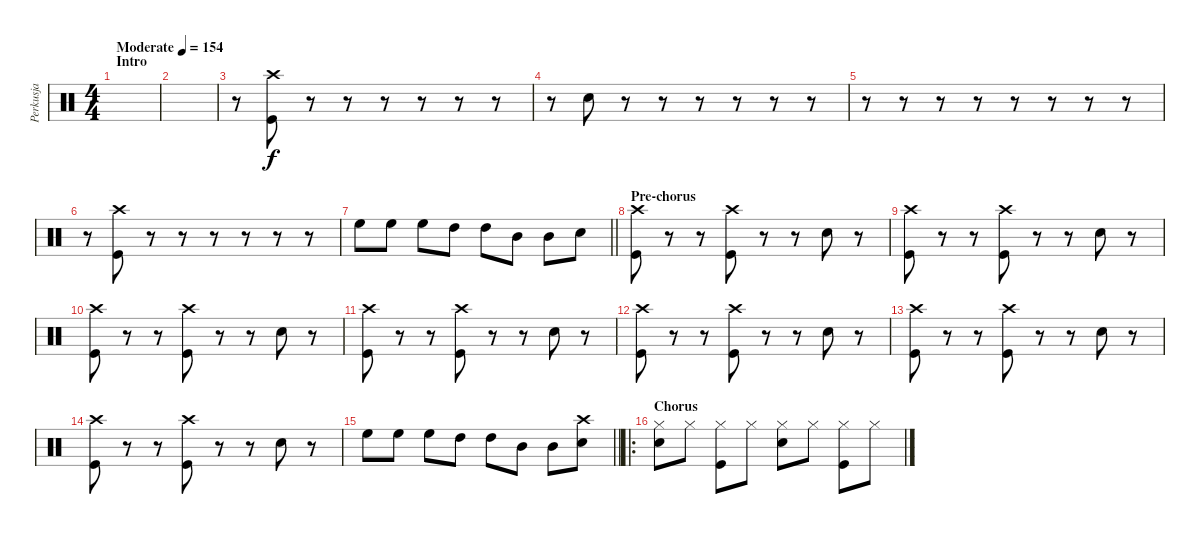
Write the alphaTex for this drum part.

\track ("Perkusja" "Perkusja") {instrument percussion}
\staff {score}
\articulation defaults
\ts (4 4)
\section ("" "Intro")
\tempo (154 "Moderate")
\clef neutral
\ks c
|
|
r.8 ("Kick (hit)" "Crash high (hit)").8 r.8 r.8 r.8 r.8 r.8 r.8 |
r.8 "Snare (hit) 2".8 r.8 r.8 r.8 r.8 r.8 r.8 |
r.8 r.8 r.8 r.8 r.8 r.8 r.8 r.8 |
r.8 ("Kick (hit)" "Crash high (hit)").8 r.8 r.8 r.8 r.8 r.8 r.8 |
\barLineRight lightlight "High Floor Tom (hit)".8 "High Floor Tom (hit)".8 "High Floor Tom (hit)".8 "High Tom (hit)".8 "High Tom (hit)".8 "Mid Tom (hit)".8 "Mid Tom (hit)".8 "Snare (hit) 2".8
|
\section ("" "Pre-chorus")
("Kick (hit)" "Crash high (hit)").8 r.8 r.8 ("Kick (hit)" "Crash high (hit)").8 r.8 r.8 "Snare (hit) 2".8 r.8 |
("Kick (hit)" "Crash high (hit)").8 r.8 r.8 ("Kick (hit)" "Crash high (hit)").8 r.8 r.8 "Snare (hit) 2".8 r.8 |
("Kick (hit)" "Crash high (hit)").8 r.8 r.8 ("Kick (hit)" "Crash high (hit)").8 r.8 r.8 "Snare (hit) 2".8 r.8 |
("Kick (hit)" "Crash high (hit)").8 r.8 r.8 ("Kick (hit)" "Crash high (hit)").8 r.8 r.8 "Snare (hit) 2".8 r.8 |
("Kick (hit)" "Crash high (hit)").8 r.8 r.8 ("Kick (hit)" "Crash high (hit)").8 r.8 r.8 "Snare (hit) 2".8 r.8 |
("Kick (hit)" "Crash high (hit)").8 r.8 r.8 ("Kick (hit)" "Crash high (hit)").8 r.8 r.8 "Snare (hit) 2".8 r.8 |
("Kick (hit)" "Crash high (hit)").8 r.8 r.8 ("Kick (hit)" "Crash high (hit)").8 r.8 r.8 "Snare (hit) 2".8 r.8 |
\barLineRight lightlight "High Floor Tom (hit)".8 "High Floor Tom (hit)".8 "High Floor Tom (hit)".8 "High Tom (hit)".8 "High Tom (hit)".8 "Mid Tom (hit)".8 "Mid Tom (hit)".8
("Snare (hit) 2" "Crash high (hit)").8 |
\ro
\section ("" "Chorus")
("Hi-Hat (closed)" "Snare (hit) 2").8 "Hi-Hat (closed)".8 ("Hi-Hat (closed)" "Kick (hit)").8 "Hi-Hat (closed)".8 ("Snare (hit) 2" "Hi-Hat (closed)").8 "Hi-Hat (closed)".8 ("Hi-Hat (closed)" "Kick (hit)").8 "Hi-Hat (closed)".8
